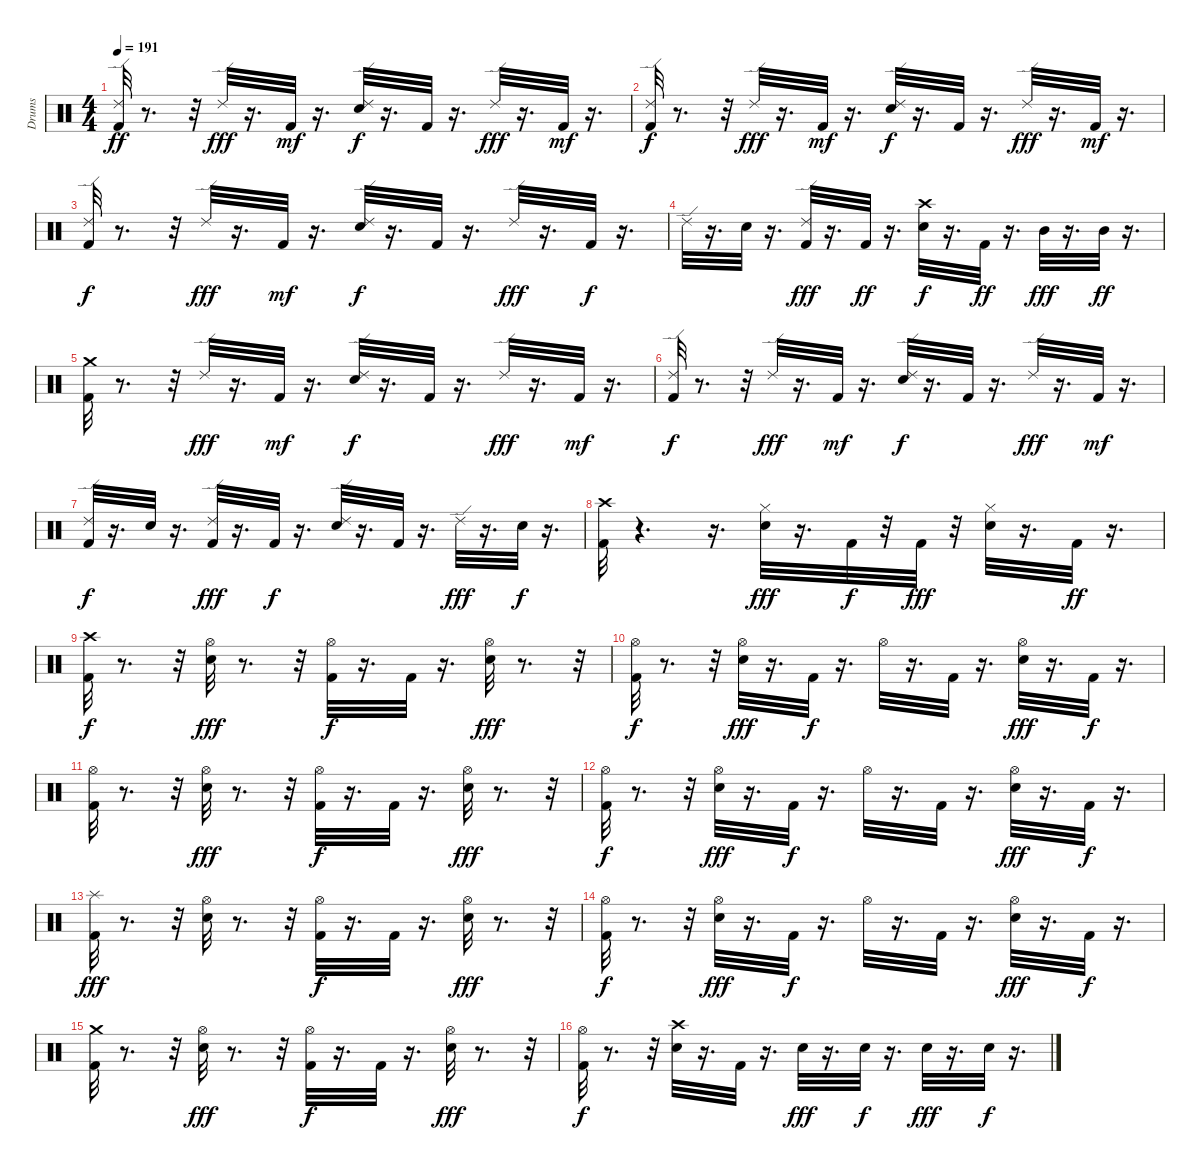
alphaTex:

\track ("Drums" "Drums") {instrument percussion}
\staff {score}
\articulation defaults
\ts (4 4)
\tempo 191
\clef neutral
\ks c
("Kick (hit) 2" "Ride (edge) 2").32{dy ff} r.8{d} r.32 "Ride (edge) 2".32{dy fff} r.16{d} "Kick (hit) 2".32{dy mf} r.16{d} ("Snare (hit) 2" "Ride (edge) 2").32{dy f} r.16{d} "Kick (hit) 2".32 r.16{d} "Ride (edge) 2".32{dy fff} r.16{d} "Kick (hit) 2".32{dy mf} r.16{d} |
("Kick (hit) 2" "Ride (edge) 2").32{dy f} r.8{d} r.32 "Ride (edge) 2".32{dy fff} r.16{d} "Kick (hit) 2".32{dy mf} r.16{d} ("Ride (edge) 2" "Snare (hit) 2").32{dy f} r.16{d} "Kick (hit) 2".32 r.16{d} "Ride (edge) 2".32{dy fff} r.16{d} "Kick (hit) 2".32{dy mf} r.16{d} |
("Kick (hit) 2" "Ride (edge) 2").32{dy f} r.8{d} r.32 "Ride (edge) 2".32{dy fff} r.16{d} "Kick (hit) 2".32{dy mf} r.16{d} ("Ride (edge) 2" "Snare (hit) 2").32{dy f} r.16{d} "Kick (hit) 2".32 r.16{d} "Ride (edge) 2".32{dy fff} r.16{d} "Kick (hit) 2".32{dy f} r.16{d} |
"Ride (edge) 2".32 r.16{d} "Snare (hit) 2".32 r.16{d} ("Kick (hit) 2" "Ride (edge) 2").32{dy fff} r.16{d} "Kick (hit) 2".32{dy ff} r.16{d} ("Snare (hit) 2" "Crash high (hit)").32{dy f} r.16{d} "Kick (hit) 2".32{dy ff} r.16{d} "Mid Tom (hit)".32{dy fff} r.16{d} "Mid Tom (hit)".32{dy ff} r.16{d} |
("Crash medium (hit)" "Kick (hit) 2").32 r.8{d} r.32 "Ride (edge) 2".32{dy fff} r.16{d} "Kick (hit) 2".32{dy mf} r.16{d} ("Snare (hit) 2" "Ride (edge) 2").32{dy f} r.16{d} "Kick (hit) 2".32 r.16{d} "Ride (edge) 2".32{dy fff} r.16{d} "Kick (hit) 2".32{dy mf} r.16{d} |
("Kick (hit) 2" "Ride (edge) 2").32{dy f} r.8{d} r.32 "Ride (edge) 2".32{dy fff} r.16{d} "Kick (hit) 2".32{dy mf} r.16{d} ("Ride (edge) 2" "Snare (hit) 2").32{dy f} r.16{d} "Kick (hit) 2".32 r.16{d} "Ride (edge) 2".32{dy fff} r.16{d} "Kick (hit) 2".32{dy mf} r.16{d} |
("Kick (hit) 2" "Ride (edge) 2").32{dy f} r.16{d} "Snare (hit) 2".32 r.16{d} ("Kick (hit) 2" "Ride (edge) 2").32{dy fff} r.16{d} "Kick (hit) 2".32{dy f} r.16{d} ("Ride (edge) 2" "Snare (hit) 2").32 r.16{d} "Kick (hit) 2".32 r.16{d} "Ride (edge) 2".32{dy fff} r.16{d} "Snare (hit) 2".32{dy f} r.16{d} |
("Kick (hit) 2" "Crash high (hit)").32 r.4{d} r.16{d} ("Snare (hit) 2" "Hi-Hat (closed)").32{dy fff} r.16{d} "Kick (hit) 2".32{dy f} r.32 "Kick (hit) 2".32{dy fff} r.32 ("Hi-Hat (closed)" "Snare (hit) 2").32 r.16{d} "Kick (hit) 2".32{dy ff} r.16{d} |
("Crash high (hit)" "Kick (hit) 2").32{dy f} r.8{d} r.32 ("Hi-Hat (open)" "Snare (hit) 2").32{dy fff} r.8{d} r.32 ("Hi-Hat (open)" "Kick (hit) 2").32{dy f} r.16{d} "Kick (hit) 2".32 r.16{d} ("Hi-Hat (open)" "Snare (hit) 2").32{dy fff} r.8{d} r.32 |
("Hi-Hat (open)" "Kick (hit) 2").32{dy f} r.8{d} r.32 ("Hi-Hat (open)" "Snare (hit) 2").32{dy fff} r.16{d} "Kick (hit) 2".32{dy f} r.16{d} "Hi-Hat (open)".32 r.16{d} "Kick (hit) 2".32 r.16{d} ("Hi-Hat (open)" "Snare (hit) 2").32{dy fff} r.16{d} "Kick (hit) 2".32{dy f} r.16{d} |
("Hi-Hat (open)" "Kick (hit) 2").32 r.8{d} r.32 ("Hi-Hat (open)" "Snare (hit) 2").32{dy fff} r.8{d} r.32 ("Hi-Hat (open)" "Kick (hit) 2").32{dy f} r.16{d} "Kick (hit) 2".32 r.16{d} ("Hi-Hat (open)" "Snare (hit) 2").32{dy fff} r.8{d} r.32 |
("Hi-Hat (open)" "Kick (hit) 2").32{dy f} r.8{d} r.32 ("Hi-Hat (open)" "Snare (hit) 2").32{dy fff} r.16{d} "Kick (hit) 2".32{dy f} r.16{d} "Hi-Hat (open)".32 r.16{d} "Kick (hit) 2".32 r.16{d} ("Hi-Hat (open)" "Snare (hit) 2").32{dy fff} r.16{d} "Kick (hit) 2".32{dy f} r.16{d} |
("Splash (hit)" "Kick (hit) 2").32{dy fff} r.8{d} r.32 ("Hi-Hat (open)" "Snare (hit) 2").32 r.8{d} r.32 ("Hi-Hat (open)" "Kick (hit) 2").32{dy f} r.16{d} "Kick (hit) 2".32 r.16{d} ("Hi-Hat (open)" "Snare (hit) 2").32{dy fff} r.8{d} r.32 |
("Hi-Hat (open)" "Kick (hit) 2").32{dy f} r.8{d} r.32 ("Hi-Hat (open)" "Snare (hit) 2").32{dy fff} r.16{d} "Kick (hit) 2".32{dy f} r.16{d} "Hi-Hat (open)".32 r.16{d} "Kick (hit) 2".32 r.16{d} ("Hi-Hat (open)" "Snare (hit) 2").32{dy fff} r.16{d} "Kick (hit) 2".32{dy f} r.16{d} |
("Crash medium (hit)" "Kick (hit) 2").32 r.8{d} r.32 ("Hi-Hat (open)" "Snare (hit) 2").32{dy fff} r.8{d} r.32 ("Hi-Hat (open)" "Kick (hit) 2").32{dy f} r.16{d} "Kick (hit) 2".32 r.16{d} ("Hi-Hat (open)" "Snare (hit) 2").32{dy fff} r.8{d} r.32 |
("Hi-Hat (open)" "Kick (hit) 2").32{dy f} r.8{d} r.32 ("Crash high (hit)" "Snare (hit) 2").32 r.16{d} "Kick (hit) 2".32 r.16{d} "Snare (hit) 2".32{dy fff} r.16{d} "Snare (hit) 2".32{dy f} r.16{d} "Snare (hit) 2".32{dy fff} r.16{d} "Snare (hit) 2".32{dy f} r.16{d}
